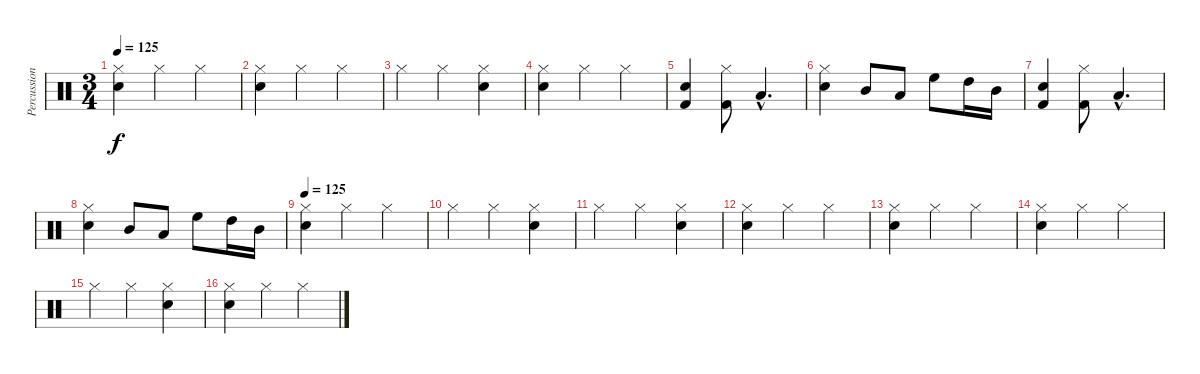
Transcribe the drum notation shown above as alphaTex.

\track ("Percussion" "Percussion") {instrument percussion}
\staff {score}
\articulation defaults
\ts (3 4)
\tempo 125
\clef neutral
\ks c
("Snare (hit) 2" "Hi-Hat (closed)").4{dy f} "Hi-Hat (closed)".4 "Hi-Hat (closed)".4 |
("Snare (hit) 2" "Hi-Hat (closed)").4 "Hi-Hat (closed)".4 "Hi-Hat (closed)".4 |
"Hi-Hat (closed)".4 "Hi-Hat (closed)".4 ("Snare (hit) 2" "Hi-Hat (closed)").4 |
("Snare (hit) 2" "Hi-Hat (closed)").4 "Hi-Hat (closed)".4 "Hi-Hat (closed)".4 |
("Kick (hit) 2" "Snare (hit) 2").4 ("Kick (hit) 2" "Hi-Hat (closed)").8 "Low Tom (hit)"{hac}.4{d} |
("Snare (hit) 2" "Hi-Hat (closed)").4 "Mid Tom (hit)".8 "Low Tom (hit)".8 "High Floor Tom (hit)".8 "High Tom (hit)".16 "Mid Tom (hit)".16 |
("Kick (hit) 2" "Snare (hit) 2").4 ("Kick (hit) 2" "Hi-Hat (closed)").8 "Low Tom (hit)"{hac}.4{d} |
("Snare (hit) 2" "Hi-Hat (closed)").4 "Mid Tom (hit)".8 "Low Tom (hit)".8 "High Floor Tom (hit)".8 "High Tom (hit)".16 "Mid Tom (hit)".16 |
\tempo 125
("Snare (hit) 2" "Hi-Hat (closed)").4 "Hi-Hat (closed)".4 "Hi-Hat (closed)".4 |
"Hi-Hat (closed)".4 "Hi-Hat (closed)".4 ("Snare (hit) 2" "Hi-Hat (closed)").4 |
"Hi-Hat (closed)".4 "Hi-Hat (closed)".4 ("Snare (hit) 2" "Hi-Hat (closed)").4 |
("Snare (hit) 2" "Hi-Hat (closed)").4 "Hi-Hat (closed)".4 "Hi-Hat (closed)".4 |
("Snare (hit) 2" "Hi-Hat (closed)").4 "Hi-Hat (closed)".4 "Hi-Hat (closed)".4 |
("Snare (hit) 2" "Hi-Hat (closed)").4 "Hi-Hat (closed)".4 "Hi-Hat (closed)".4 |
"Hi-Hat (closed)".4 "Hi-Hat (closed)".4 ("Snare (hit) 2" "Hi-Hat (closed)").4 |
("Snare (hit) 2" "Hi-Hat (closed)").4 "Hi-Hat (closed)".4 "Hi-Hat (closed)".4
